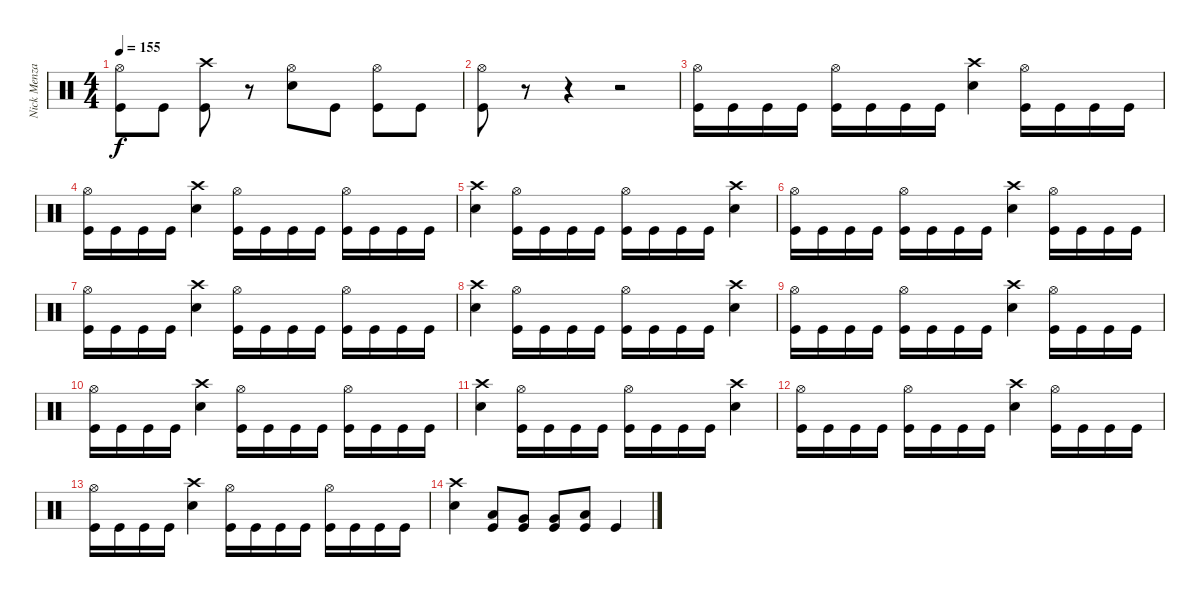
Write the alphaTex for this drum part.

\track ("Nick Menza" "Nick Menza") {instrument percussion}
\staff {score}
\articulation defaults
\ts (4 4)
\tempo 155
\clef neutral
\ks c
("Hi-Hat (open)" "Kick (hit)").8{dy f} "Kick (hit)".8 ("Crash high (hit)" "Kick (hit)").8 r.8 ("Hi-Hat (open)" "Snare (hit) 2").8 "Kick (hit)".8 ("Hi-Hat (open)" "Kick (hit)").8 "Kick (hit)".8 |
("Hi-Hat (open)" "Kick (hit)").8 r.8 r.4 r.2 |
("Hi-Hat (open)" "Kick (hit)").16 "Kick (hit)".16 "Kick (hit)".16 "Kick (hit)".16 ("Hi-Hat (open)" "Kick (hit)").16 "Kick (hit)".16 "Kick (hit)".16 "Kick (hit)".16 ("Crash high (hit)" "Snare (hit) 2").4 ("Hi-Hat (open)" "Kick (hit)").16 "Kick (hit)".16 "Kick (hit)".16 "Kick (hit)".16 |
("Hi-Hat (open)" "Kick (hit)").16 "Kick (hit)".16 "Kick (hit)".16 "Kick (hit)".16 ("Crash high (hit)" "Snare (hit) 2").4 ("Hi-Hat (open)" "Kick (hit)").16 "Kick (hit)".16 "Kick (hit)".16 "Kick (hit)".16 ("Hi-Hat (open)" "Kick (hit)").16 "Kick (hit)".16 "Kick (hit)".16 "Kick (hit)".16 |
("Crash high (hit)" "Snare (hit) 2").4 ("Hi-Hat (open)" "Kick (hit)").16 "Kick (hit)".16 "Kick (hit)".16 "Kick (hit)".16 ("Hi-Hat (open)" "Kick (hit)").16 "Kick (hit)".16 "Kick (hit)".16 "Kick (hit)".16 ("Crash high (hit)" "Snare (hit) 2").4 |
("Hi-Hat (open)" "Kick (hit)").16 "Kick (hit)".16 "Kick (hit)".16 "Kick (hit)".16 ("Hi-Hat (open)" "Kick (hit)").16 "Kick (hit)".16 "Kick (hit)".16 "Kick (hit)".16 ("Crash high (hit)" "Snare (hit) 2").4 ("Hi-Hat (open)" "Kick (hit)").16 "Kick (hit)".16 "Kick (hit)".16 "Kick (hit)".16 |
("Hi-Hat (open)" "Kick (hit)").16 "Kick (hit)".16 "Kick (hit)".16 "Kick (hit)".16 ("Crash high (hit)" "Snare (hit) 2").4 ("Hi-Hat (open)" "Kick (hit)").16 "Kick (hit)".16 "Kick (hit)".16 "Kick (hit)".16 ("Hi-Hat (open)" "Kick (hit)").16 "Kick (hit)".16 "Kick (hit)".16 "Kick (hit)".16 |
("Crash high (hit)" "Snare (hit) 2").4 ("Hi-Hat (open)" "Kick (hit)").16 "Kick (hit)".16 "Kick (hit)".16 "Kick (hit)".16 ("Hi-Hat (open)" "Kick (hit)").16 "Kick (hit)".16 "Kick (hit)".16 "Kick (hit)".16 ("Crash high (hit)" "Snare (hit) 2").4 |
("Hi-Hat (open)" "Kick (hit)").16 "Kick (hit)".16 "Kick (hit)".16 "Kick (hit)".16 ("Hi-Hat (open)" "Kick (hit)").16 "Kick (hit)".16 "Kick (hit)".16 "Kick (hit)".16 ("Crash high (hit)" "Snare (hit) 2").4 ("Hi-Hat (open)" "Kick (hit)").16 "Kick (hit)".16 "Kick (hit)".16 "Kick (hit)".16 |
("Hi-Hat (open)" "Kick (hit)").16 "Kick (hit)".16 "Kick (hit)".16 "Kick (hit)".16 ("Crash high (hit)" "Snare (hit) 2").4 ("Hi-Hat (open)" "Kick (hit)").16 "Kick (hit)".16 "Kick (hit)".16 "Kick (hit)".16 ("Hi-Hat (open)" "Kick (hit)").16 "Kick (hit)".16 "Kick (hit)".16 "Kick (hit)".16 |
("Crash high (hit)" "Snare (hit) 2").4 ("Hi-Hat (open)" "Kick (hit)").16 "Kick (hit)".16 "Kick (hit)".16 "Kick (hit)".16 ("Hi-Hat (open)" "Kick (hit)").16 "Kick (hit)".16 "Kick (hit)".16 "Kick (hit)".16 ("Crash high (hit)" "Snare (hit) 2").4 |
("Hi-Hat (open)" "Kick (hit)").16 "Kick (hit)".16 "Kick (hit)".16 "Kick (hit)".16 ("Hi-Hat (open)" "Kick (hit)").16 "Kick (hit)".16 "Kick (hit)".16 "Kick (hit)".16 ("Crash high (hit)" "Snare (hit) 2").4 ("Hi-Hat (open)" "Kick (hit)").16 "Kick (hit)".16 "Kick (hit)".16 "Kick (hit)".16 |
("Hi-Hat (open)" "Kick (hit)").16 "Kick (hit)".16 "Kick (hit)".16 "Kick (hit)".16 ("Crash high (hit)" "Snare (hit) 2").4 ("Hi-Hat (open)" "Kick (hit)").16 "Kick (hit)".16 "Kick (hit)".16 "Kick (hit)".16 ("Hi-Hat (open)" "Kick (hit)").16 "Kick (hit)".16 "Kick (hit)".16 "Kick (hit)".16 |
("Crash high (hit)" "Snare (hit) 2").4 ("Low Tom (hit)" "Kick (hit)").8 ("Very Low Tom (hit)" "Kick (hit)").8 ("Very Low Tom (hit)" "Kick (hit)").8 ("Low Floor Tom (hit)" "Kick (hit)").8 "Kick (hit)".4
